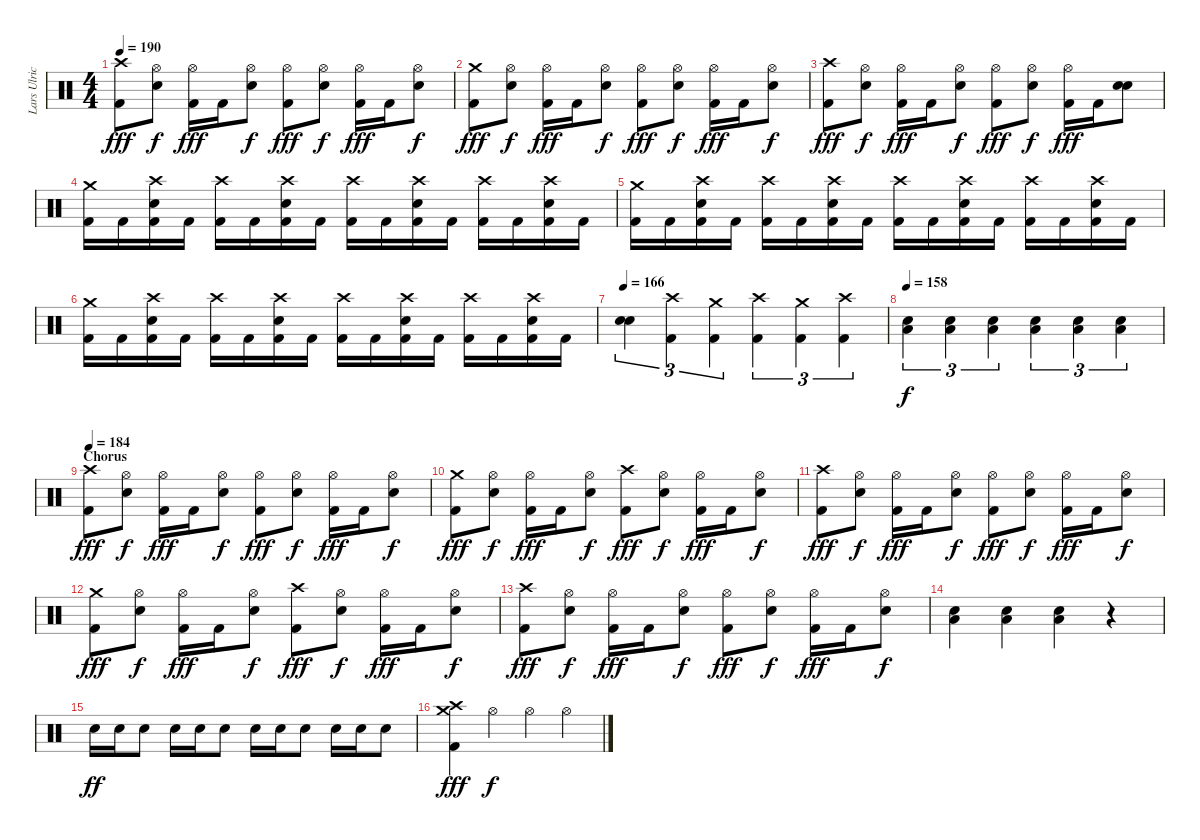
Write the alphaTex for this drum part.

\track ("Lars Ulrich" "Lars Ulric") {instrument percussion}
\staff {score}
\articulation defaults
\ts (4 4)
\tempo 190
\clef neutral
\ks c
("Crash high (hit)" "Kick (hit) 2").8{dy fff} ("Hi-Hat (open)" "Electric Snare (hit)").8{dy f} ("Hi-Hat (open)" "Kick (hit) 2").16{dy fff} "Kick (hit) 2".16 ("Hi-Hat (open)" "Electric Snare (hit)").8{dy f} ("Hi-Hat (open)" "Kick (hit) 2").8{dy fff} ("Hi-Hat (open)" "Electric Snare (hit)").8{dy f} ("Hi-Hat (open)" "Kick (hit) 2").16{dy fff} "Kick (hit) 2".16 ("Hi-Hat (open)" "Electric Snare (hit)").8{dy f} |
("Crash medium (hit)" "Kick (hit) 2").8{dy fff} ("Hi-Hat (open)" "Electric Snare (hit)").8{dy f} ("Hi-Hat (open)" "Kick (hit) 2").16{dy fff} "Kick (hit) 2".16 ("Hi-Hat (open)" "Electric Snare (hit)").8{dy f} ("Hi-Hat (open)" "Kick (hit) 2").8{dy fff} ("Hi-Hat (open)" "Electric Snare (hit)").8{dy f} ("Hi-Hat (open)" "Kick (hit) 2").16{dy fff} "Kick (hit) 2".16 ("Hi-Hat (open)" "Electric Snare (hit)").8{dy f} |
("Crash high (hit)" "Kick (hit) 2").8{dy fff} ("Hi-Hat (open)" "Electric Snare (hit)").8{dy f} ("Hi-Hat (open)" "Kick (hit) 2").16{dy fff} "Kick (hit) 2".16 ("Hi-Hat (open)" "Electric Snare (hit)").8{dy f} ("Hi-Hat (open)" "Kick (hit) 2").8{dy fff} ("Hi-Hat (open)" "Electric Snare (hit)").8{dy f} ("Hi-Hat (open)" "Kick (hit) 2").16{dy fff} "Kick (hit) 2".16 ("Electric Snare (hit)" "Electric Snare (hit)").8{bu 120} |
("Crash medium (hit)" "Kick (hit) 2").16 "Kick (hit) 2".16 ("Crash high (hit)" "Electric Snare (hit)" "Kick (hit) 2").16 "Kick (hit) 2".16 ("Crash high (hit)" "Kick (hit) 2").16 "Kick (hit) 2".16 ("Crash high (hit)" "Electric Snare (hit)" "Kick (hit) 2").16 "Kick (hit) 2".16 ("Crash high (hit)" "Kick (hit) 2").16 "Kick (hit) 2".16 ("Crash high (hit)" "Electric Snare (hit)" "Kick (hit) 2").16 "Kick (hit) 2".16 ("Crash high (hit)" "Kick (hit) 2").16 "Kick (hit) 2".16 ("Crash high (hit)" "Electric Snare (hit)" "Kick (hit) 2").16 "Kick (hit) 2".16 |
("Crash medium (hit)" "Kick (hit) 2").16 "Kick (hit) 2".16 ("Crash high (hit)" "Electric Snare (hit)" "Kick (hit) 2").16 "Kick (hit) 2".16 ("Crash high (hit)" "Kick (hit) 2").16 "Kick (hit) 2".16 ("Crash high (hit)" "Electric Snare (hit)" "Kick (hit) 2").16 "Kick (hit) 2".16 ("Crash high (hit)" "Kick (hit) 2").16 "Kick (hit) 2".16 ("Crash high (hit)" "Electric Snare (hit)" "Kick (hit) 2").16 "Kick (hit) 2".16 ("Crash high (hit)" "Kick (hit) 2").16 "Kick (hit) 2".16 ("Crash high (hit)" "Electric Snare (hit)" "Kick (hit) 2").16 "Kick (hit) 2".16 |
("Crash medium (hit)" "Kick (hit) 2").16 "Kick (hit) 2".16 ("Crash high (hit)" "Electric Snare (hit)" "Kick (hit) 2").16 "Kick (hit) 2".16 ("Crash high (hit)" "Kick (hit) 2").16 "Kick (hit) 2".16 ("Crash high (hit)" "Electric Snare (hit)" "Kick (hit) 2").16 "Kick (hit) 2".16 ("Crash high (hit)" "Kick (hit) 2").16 "Kick (hit) 2".16 ("Crash high (hit)" "Electric Snare (hit)" "Kick (hit) 2").16 "Kick (hit) 2".16 ("Crash high (hit)" "Kick (hit) 2").16 "Kick (hit) 2".16 ("Crash high (hit)" "Electric Snare (hit)" "Kick (hit) 2").16 "Kick (hit) 2".16 |
\tempo 166
("Electric Snare (hit)" "Electric Snare (hit)").4{tu (3 2) bu 120} ("Crash high (hit)" "Kick (hit) 2").4{tu (3 2)} ("Crash medium (hit)" "Kick (hit) 2").4{tu (3 2)} ("Crash high (hit)" "Kick (hit) 2").4{tu (3 2)} ("Crash medium (hit)" "Kick (hit) 2").4{tu (3 2)} ("Crash high (hit)" "Kick (hit) 2").4{tu (3 2)} |
\tempo 158
("Electric Snare (hit)" "Low Floor Tom (hit)").4{tu (3 2) dy f} ("Electric Snare (hit)" "Low Floor Tom (hit)").4{tu (3 2)} ("Electric Snare (hit)" "Low Floor Tom (hit)").4{tu (3 2)} ("Electric Snare (hit)" "Low Floor Tom (hit)").4{tu (3 2)} ("Electric Snare (hit)" "Low Floor Tom (hit)").4{tu (3 2)} ("Electric Snare (hit)" "Low Floor Tom (hit)").4{tu (3 2)} |
\section ("" "Chorus")
\tempo 184
("Crash high (hit)" "Kick (hit) 2").8{dy fff} ("Hi-Hat (open)" "Electric Snare (hit)").8{dy f} ("Hi-Hat (open)" "Kick (hit) 2").16{dy fff} "Kick (hit) 2".16 ("Hi-Hat (open)" "Electric Snare (hit)").8{dy f} ("Hi-Hat (open)" "Kick (hit) 2").8{dy fff} ("Hi-Hat (open)" "Electric Snare (hit)").8{dy f} ("Hi-Hat (open)" "Kick (hit) 2").16{dy fff} "Kick (hit) 2".16 ("Hi-Hat (open)" "Electric Snare (hit)").8{dy f} |
("Crash medium (hit)" "Kick (hit) 2").8{dy fff} ("Hi-Hat (open)" "Electric Snare (hit)").8{dy f} ("Hi-Hat (open)" "Kick (hit) 2").16{dy fff} "Kick (hit) 2".16 ("Hi-Hat (open)" "Electric Snare (hit)").8{dy f} ("Crash high (hit)" "Kick (hit) 2").8{dy fff} ("Hi-Hat (open)" "Electric Snare (hit)").8{dy f} ("Hi-Hat (open)" "Kick (hit) 2").16{dy fff} "Kick (hit) 2".16 ("Hi-Hat (open)" "Electric Snare (hit)").8{dy f} |
("Crash high (hit)" "Kick (hit) 2").8{dy fff} ("Hi-Hat (open)" "Electric Snare (hit)").8{dy f} ("Hi-Hat (open)" "Kick (hit) 2").16{dy fff} "Kick (hit) 2".16 ("Hi-Hat (open)" "Electric Snare (hit)").8{dy f} ("Hi-Hat (open)" "Kick (hit) 2").8{dy fff} ("Hi-Hat (open)" "Electric Snare (hit)").8{dy f} ("Hi-Hat (open)" "Kick (hit) 2").16{dy fff} "Kick (hit) 2".16 ("Hi-Hat (open)" "Electric Snare (hit)").8{dy f} |
("Crash medium (hit)" "Kick (hit) 2").8{dy fff} ("Hi-Hat (open)" "Electric Snare (hit)").8{dy f} ("Hi-Hat (open)" "Kick (hit) 2").16{dy fff} "Kick (hit) 2".16 ("Hi-Hat (open)" "Electric Snare (hit)").8{dy f} ("Crash high (hit)" "Kick (hit) 2").8{dy fff} ("Hi-Hat (open)" "Electric Snare (hit)").8{dy f} ("Hi-Hat (open)" "Kick (hit) 2").16{dy fff} "Kick (hit) 2".16 ("Hi-Hat (open)" "Electric Snare (hit)").8{dy f} |
("Crash high (hit)" "Kick (hit) 2").8{dy fff} ("Hi-Hat (open)" "Electric Snare (hit)").8{dy f} ("Hi-Hat (open)" "Kick (hit) 2").16{dy fff} "Kick (hit) 2".16 ("Hi-Hat (open)" "Electric Snare (hit)").8{dy f} ("Hi-Hat (open)" "Kick (hit) 2").8{dy fff} ("Hi-Hat (open)" "Electric Snare (hit)").8{dy f} ("Hi-Hat (open)" "Kick (hit) 2").16{dy fff} "Kick (hit) 2".16 ("Hi-Hat (open)" "Electric Snare (hit)").8{dy f} |
("Electric Snare (hit)" "Low Floor Tom (hit)").4 ("Electric Snare (hit)" "Low Floor Tom (hit)").4 ("Electric Snare (hit)" "Low Floor Tom (hit)").4 r.4 |
"Electric Snare (hit)".16{dy ff} "Electric Snare (hit)".16 "Electric Snare (hit)".8 "Electric Snare (hit)".16 "Electric Snare (hit)".16 "Electric Snare (hit)".8 "Electric Snare (hit)".16 "Electric Snare (hit)".16 "Electric Snare (hit)".8 "Electric Snare (hit)".16 "Electric Snare (hit)".16 "Electric Snare (hit)".8 |
("Crash medium (hit)" "Crash high (hit)" "Kick (hit) 2").4{dy fff} "Hi-Hat (open)".4{dy f} "Hi-Hat (open)".4 "Hi-Hat (open)".4
